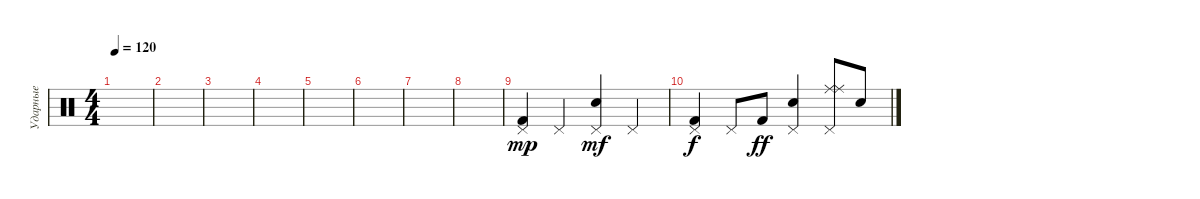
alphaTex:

\track ("Ударные" "Ударные") {instrument percussion}
\staff {score}
\articulation defaults
\ts (4 4)
\tempo 120
\clef neutral
\ks c
|
|
|
|
|
|
|
|
("Pedal Hi-Hat (hit)" "Kick (hit) 2").4{dy mp} "Pedal Hi-Hat (hit)".4 ("Pedal Hi-Hat (hit)" "Snare (hit) 2").4{dy mf} "Pedal Hi-Hat (hit)".4 |
("Pedal Hi-Hat (hit)" "Kick (hit) 2").4{dy f} "Pedal Hi-Hat (hit)".8 "Kick (hit) 2".8{dy ff} ("Pedal Hi-Hat (hit)" "Snare (hit) 2").4 ("Ride (middle)" "Ride (middle)" "Pedal Hi-Hat (hit)").8 "Snare (hit) 2".8
